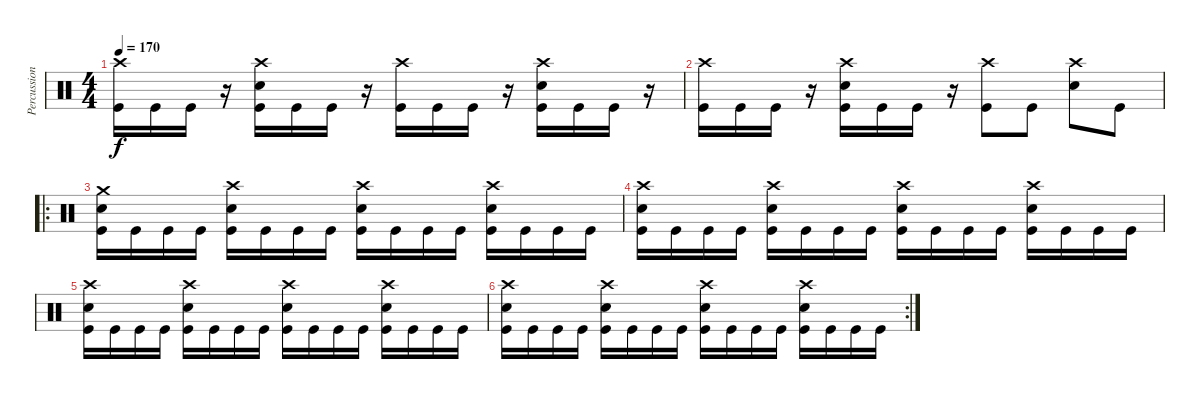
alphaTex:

\track ("Percussion" "Percussion") {instrument percussion}
\staff {score}
\articulation defaults
\ts (4 4)
\tempo 170
\clef neutral
\ks c
("Crash high (hit)" "Kick (hit)").16{dy f} "Kick (hit)".16 "Kick (hit)".16 r.16 ("Crash high (hit)" "Snare (hit) 2" "Kick (hit)").16 "Kick (hit)".16 "Kick (hit)".16 r.16 ("Crash high (hit)" "Kick (hit)").16 "Kick (hit)".16 "Kick (hit)".16 r.16 ("Crash high (hit)" "Snare (hit) 2" "Kick (hit)").16 "Kick (hit)".16 "Kick (hit)".16 r.16 |
("Crash high (hit)" "Kick (hit)").16 "Kick (hit)".16 "Kick (hit)".16 r.16 ("Crash high (hit)" "Snare (hit) 2" "Kick (hit)").16 "Kick (hit)".16 "Kick (hit)".16 r.16 ("Crash high (hit)" "Kick (hit)").8 "Kick (hit)".8 ("Crash high (hit)" "Snare (hit) 2").8 "Kick (hit)".8 |
\ro
("Crash medium (hit)" "Snare (hit) 2" "Kick (hit)").16 "Kick (hit)".16 "Kick (hit)".16 "Kick (hit)".16 ("Crash high (hit)" "Snare (hit) 2" "Kick (hit)").16 "Kick (hit)".16 "Kick (hit)".16 "Kick (hit)".16 ("Crash high (hit)" "Snare (hit) 2" "Kick (hit)").16 "Kick (hit)".16 "Kick (hit)".16 "Kick (hit)".16 ("Crash high (hit)" "Snare (hit) 2" "Kick (hit)").16 "Kick (hit)".16 "Kick (hit)".16 "Kick (hit)".16 |
("Crash high (hit)" "Snare (hit) 2" "Kick (hit)").16 "Kick (hit)".16 "Kick (hit)".16 "Kick (hit)".16 ("Crash high (hit)" "Snare (hit) 2" "Kick (hit)").16 "Kick (hit)".16 "Kick (hit)".16 "Kick (hit)".16 ("Crash high (hit)" "Snare (hit) 2" "Kick (hit)").16 "Kick (hit)".16 "Kick (hit)".16 "Kick (hit)".16 ("Crash high (hit)" "Snare (hit) 2" "Kick (hit)").16 "Kick (hit)".16 "Kick (hit)".16 "Kick (hit)".16 |
("Crash high (hit)" "Snare (hit) 2" "Kick (hit)").16 "Kick (hit)".16 "Kick (hit)".16 "Kick (hit)".16 ("Crash high (hit)" "Snare (hit) 2" "Kick (hit)").16 "Kick (hit)".16 "Kick (hit)".16 "Kick (hit)".16 ("Crash high (hit)" "Snare (hit) 2" "Kick (hit)").16 "Kick (hit)".16 "Kick (hit)".16 "Kick (hit)".16 ("Crash high (hit)" "Snare (hit) 2" "Kick (hit)").16 "Kick (hit)".16 "Kick (hit)".16 "Kick (hit)".16 |
\rc 2
("Crash high (hit)" "Snare (hit) 2" "Kick (hit)").16 "Kick (hit)".16 "Kick (hit)".16 "Kick (hit)".16 ("Crash high (hit)" "Snare (hit) 2" "Kick (hit)").16 "Kick (hit)".16 "Kick (hit)".16 "Kick (hit)".16 ("Crash high (hit)" "Snare (hit) 2" "Kick (hit)").16 "Kick (hit)".16 "Kick (hit)".16 "Kick (hit)".16 ("Crash high (hit)" "Snare (hit) 2" "Kick (hit)").16 "Kick (hit)".16 "Kick (hit)".16 "Kick (hit)".16
